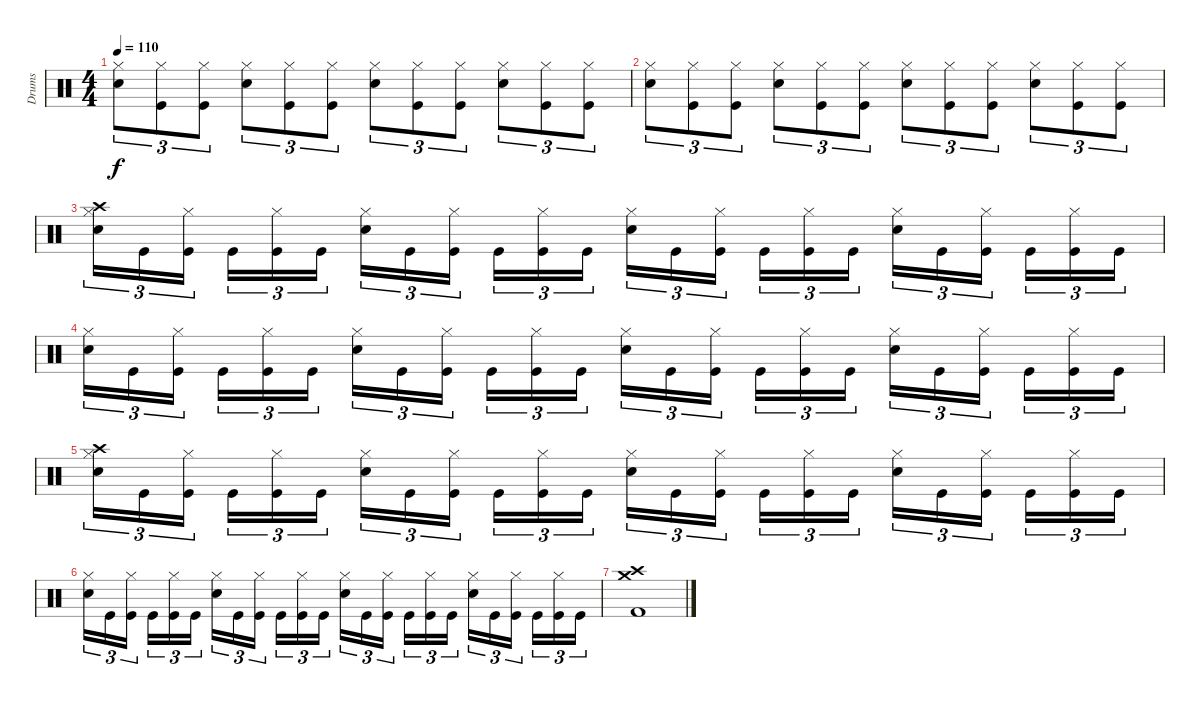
\track ("Drums" "Drums") {instrument percussion}
\staff {score}
\articulation defaults
\ts (4 4)
\tempo 110
\clef neutral
\ks c
("Hi-Hat (closed)" "Snare (hit) 2").8{tu (3 2) dy f} ("Hi-Hat (closed)" "Kick (hit)").8{tu (3 2)} ("Hi-Hat (closed)" "Kick (hit)").8{tu (3 2)} ("Hi-Hat (closed)" "Snare (hit) 2").8{tu (3 2)} ("Hi-Hat (closed)" "Kick (hit)").8{tu (3 2)} ("Hi-Hat (closed)" "Kick (hit)").8{tu (3 2)} ("Hi-Hat (closed)" "Snare (hit) 2").8{tu (3 2)} ("Hi-Hat (closed)" "Kick (hit)").8{tu (3 2)} ("Hi-Hat (closed)" "Kick (hit)").8{tu (3 2)} ("Hi-Hat (closed)" "Snare (hit) 2").8{tu (3 2)} ("Hi-Hat (closed)" "Kick (hit)").8{tu (3 2)} ("Hi-Hat (closed)" "Kick (hit)").8{tu (3 2)} |
("Hi-Hat (closed)" "Snare (hit) 2").8{tu (3 2)} ("Hi-Hat (closed)" "Kick (hit)").8{tu (3 2)} ("Hi-Hat (closed)" "Kick (hit)").8{tu (3 2)} ("Hi-Hat (closed)" "Snare (hit) 2").8{tu (3 2)} ("Hi-Hat (closed)" "Kick (hit)").8{tu (3 2)} ("Hi-Hat (closed)" "Kick (hit)").8{tu (3 2)} ("Hi-Hat (closed)" "Snare (hit) 2").8{tu (3 2)} ("Hi-Hat (closed)" "Kick (hit)").8{tu (3 2)} ("Hi-Hat (closed)" "Kick (hit)").8{tu (3 2)} ("Hi-Hat (closed)" "Snare (hit) 2").8{tu (3 2)} ("Hi-Hat (closed)" "Kick (hit)").8{tu (3 2)} ("Hi-Hat (closed)" "Kick (hit)").8{tu (3 2)} |
("Crash high (hit)" "Hi-Hat (closed)" "Snare (hit) 2").16{tu (3 2)} "Kick (hit)".16{tu (3 2)} ("Hi-Hat (closed)" "Kick (hit)").16{tu (3 2)} "Kick (hit)".16{tu (3 2)} ("Hi-Hat (closed)" "Kick (hit)").16{tu (3 2)} "Kick (hit)".16{tu (3 2)} ("Hi-Hat (closed)" "Snare (hit) 2").16{tu (3 2)} "Kick (hit)".16{tu (3 2)} ("Hi-Hat (closed)" "Kick (hit)").16{tu (3 2)} "Kick (hit)".16{tu (3 2)} ("Hi-Hat (closed)" "Kick (hit)").16{tu (3 2)} "Kick (hit)".16{tu (3 2)} ("Hi-Hat (closed)" "Snare (hit) 2").16{tu (3 2)} "Kick (hit)".16{tu (3 2)} ("Hi-Hat (closed)" "Kick (hit)").16{tu (3 2)} "Kick (hit)".16{tu (3 2)} ("Hi-Hat (closed)" "Kick (hit)").16{tu (3 2)} "Kick (hit)".16{tu (3 2)} ("Hi-Hat (closed)" "Snare (hit) 2").16{tu (3 2)} "Kick (hit)".16{tu (3 2)} ("Hi-Hat (closed)" "Kick (hit)").16{tu (3 2)} "Kick (hit)".16{tu (3 2)} ("Hi-Hat (closed)" "Kick (hit)").16{tu (3 2)} "Kick (hit)".16{tu (3 2)} |
("Hi-Hat (closed)" "Snare (hit) 2").16{tu (3 2)} "Kick (hit)".16{tu (3 2)} ("Hi-Hat (closed)" "Kick (hit)").16{tu (3 2)} "Kick (hit)".16{tu (3 2)} ("Hi-Hat (closed)" "Kick (hit)").16{tu (3 2)} "Kick (hit)".16{tu (3 2)} ("Hi-Hat (closed)" "Snare (hit) 2").16{tu (3 2)} "Kick (hit)".16{tu (3 2)} ("Hi-Hat (closed)" "Kick (hit)").16{tu (3 2)} "Kick (hit)".16{tu (3 2)} ("Hi-Hat (closed)" "Kick (hit)").16{tu (3 2)} "Kick (hit)".16{tu (3 2)} ("Hi-Hat (closed)" "Snare (hit) 2").16{tu (3 2)} "Kick (hit)".16{tu (3 2)} ("Hi-Hat (closed)" "Kick (hit)").16{tu (3 2)} "Kick (hit)".16{tu (3 2)} ("Hi-Hat (closed)" "Kick (hit)").16{tu (3 2)} "Kick (hit)".16{tu (3 2)} ("Hi-Hat (closed)" "Snare (hit) 2").16{tu (3 2)} "Kick (hit)".16{tu (3 2)} ("Hi-Hat (closed)" "Kick (hit)").16{tu (3 2)} "Kick (hit)".16{tu (3 2)} ("Hi-Hat (closed)" "Kick (hit)").16{tu (3 2)} "Kick (hit)".16{tu (3 2)} |
("Crash high (hit)" "Hi-Hat (closed)" "Snare (hit) 2").16{tu (3 2)} "Kick (hit)".16{tu (3 2)} ("Hi-Hat (closed)" "Kick (hit)").16{tu (3 2)} "Kick (hit)".16{tu (3 2)} ("Hi-Hat (closed)" "Kick (hit)").16{tu (3 2)} "Kick (hit)".16{tu (3 2)} ("Hi-Hat (closed)" "Snare (hit) 2").16{tu (3 2)} "Kick (hit)".16{tu (3 2)} ("Hi-Hat (closed)" "Kick (hit)").16{tu (3 2)} "Kick (hit)".16{tu (3 2)} ("Hi-Hat (closed)" "Kick (hit)").16{tu (3 2)} "Kick (hit)".16{tu (3 2)} ("Hi-Hat (closed)" "Snare (hit) 2").16{tu (3 2)} "Kick (hit)".16{tu (3 2)} ("Hi-Hat (closed)" "Kick (hit)").16{tu (3 2)} "Kick (hit)".16{tu (3 2)} ("Hi-Hat (closed)" "Kick (hit)").16{tu (3 2)} "Kick (hit)".16{tu (3 2)} ("Hi-Hat (closed)" "Snare (hit) 2").16{tu (3 2)} "Kick (hit)".16{tu (3 2)} ("Hi-Hat (closed)" "Kick (hit)").16{tu (3 2)} "Kick (hit)".16{tu (3 2)} ("Hi-Hat (closed)" "Kick (hit)").16{tu (3 2)} "Kick (hit)".16{tu (3 2)} |
("Hi-Hat (closed)" "Snare (hit) 2").16{tu (3 2)} "Kick (hit)".16{tu (3 2)} ("Hi-Hat (closed)" "Kick (hit)").16{tu (3 2)} "Kick (hit)".16{tu (3 2)} ("Hi-Hat (closed)" "Kick (hit)").16{tu (3 2)} "Kick (hit)".16{tu (3 2)} ("Hi-Hat (closed)" "Snare (hit) 2").16{tu (3 2)} "Kick (hit)".16{tu (3 2)} ("Hi-Hat (closed)" "Kick (hit)").16{tu (3 2)} "Kick (hit)".16{tu (3 2)} ("Hi-Hat (closed)" "Kick (hit)").16{tu (3 2)} "Kick (hit)".16{tu (3 2)} ("Hi-Hat (closed)" "Snare (hit) 2").16{tu (3 2)} "Kick (hit)".16{tu (3 2)} ("Hi-Hat (closed)" "Kick (hit)").16{tu (3 2)} "Kick (hit)".16{tu (3 2)} ("Hi-Hat (closed)" "Kick (hit)").16{tu (3 2)} "Kick (hit)".16{tu (3 2)} ("Hi-Hat (closed)" "Snare (hit) 2").16{tu (3 2)} "Kick (hit)".16{tu (3 2)} ("Hi-Hat (closed)" "Kick (hit)").16{tu (3 2)} "Kick (hit)".16{tu (3 2)} ("Hi-Hat (closed)" "Kick (hit)").16{tu (3 2)} "Kick (hit)".16{tu (3 2)} |
("Crash medium (hit)" "Kick (hit) 2" "Crash high (hit)").1
